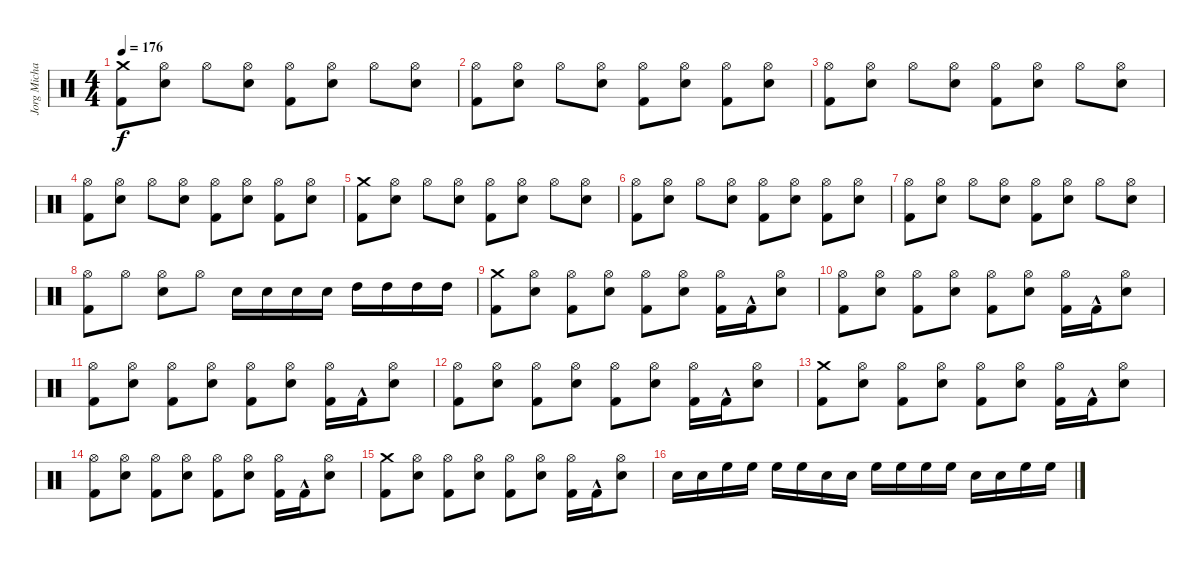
\track ("Jorg Michael" "Jorg Micha") {instrument percussion}
\staff {score}
\articulation defaults
\ts (4 4)
\tempo 176
\clef neutral
\ks c
("Kick (hit) 2" "Crash medium (hit)").8{dy f} ("Snare (hit) 2" "Hi-Hat (open)").8 "Hi-Hat (open)".8 ("Snare (hit) 2" "Hi-Hat (open)").8 ("Kick (hit) 2" "Hi-Hat (open)").8 ("Snare (hit) 2" "Hi-Hat (open)").8 "Hi-Hat (open)".8 ("Snare (hit) 2" "Hi-Hat (open)").8 |
("Hi-Hat (open)" "Kick (hit) 2").8 ("Snare (hit) 2" "Hi-Hat (open)").8 "Hi-Hat (open)".8 ("Snare (hit) 2" "Hi-Hat (open)").8 ("Kick (hit) 2" "Hi-Hat (open)").8 ("Snare (hit) 2" "Hi-Hat (open)").8 ("Kick (hit) 2" "Hi-Hat (open)").8 ("Snare (hit) 2" "Hi-Hat (open)").8 |
("Hi-Hat (open)" "Kick (hit) 2").8 ("Snare (hit) 2" "Hi-Hat (open)").8 "Hi-Hat (open)".8 ("Snare (hit) 2" "Hi-Hat (open)").8 ("Kick (hit) 2" "Hi-Hat (open)").8 ("Snare (hit) 2" "Hi-Hat (open)").8 "Hi-Hat (open)".8 ("Snare (hit) 2" "Hi-Hat (open)").8 |
("Hi-Hat (open)" "Kick (hit) 2").8 ("Snare (hit) 2" "Hi-Hat (open)").8 "Hi-Hat (open)".8 ("Snare (hit) 2" "Hi-Hat (open)").8 ("Kick (hit) 2" "Hi-Hat (open)").8 ("Snare (hit) 2" "Hi-Hat (open)").8 ("Kick (hit) 2" "Hi-Hat (open)").8 ("Snare (hit) 2" "Hi-Hat (open)").8 |
("Kick (hit) 2" "Crash medium (hit)").8 ("Snare (hit) 2" "Hi-Hat (open)").8 "Hi-Hat (open)".8 ("Snare (hit) 2" "Hi-Hat (open)").8 ("Kick (hit) 2" "Hi-Hat (open)").8 ("Snare (hit) 2" "Hi-Hat (open)").8 "Hi-Hat (open)".8 ("Snare (hit) 2" "Hi-Hat (open)").8 |
("Hi-Hat (open)" "Kick (hit) 2").8 ("Snare (hit) 2" "Hi-Hat (open)").8 "Hi-Hat (open)".8 ("Snare (hit) 2" "Hi-Hat (open)").8 ("Kick (hit) 2" "Hi-Hat (open)").8 ("Snare (hit) 2" "Hi-Hat (open)").8 ("Kick (hit) 2" "Hi-Hat (open)").8 ("Snare (hit) 2" "Hi-Hat (open)").8 |
("Hi-Hat (open)" "Kick (hit) 2").8 ("Snare (hit) 2" "Hi-Hat (open)").8 "Hi-Hat (open)".8 ("Snare (hit) 2" "Hi-Hat (open)").8 ("Kick (hit) 2" "Hi-Hat (open)").8 ("Snare (hit) 2" "Hi-Hat (open)").8 "Hi-Hat (open)".8 ("Snare (hit) 2" "Hi-Hat (open)").8 |
("Kick (hit) 2" "Hi-Hat (open)").8 "Hi-Hat (open)".8 ("Snare (hit) 2" "Hi-Hat (open)").8 "Hi-Hat (open)".8 "Snare (hit) 2".16 "Snare (hit) 2".16 "Snare (hit) 2".16 "Snare (hit) 2".16 "High Tom (hit)".16 "High Tom (hit)".16 "High Tom (hit)".16 "High Tom (hit)".16 |
("Kick (hit) 2" "Crash medium (hit)").8 ("Snare (hit) 2" "Hi-Hat (open)").8 ("Kick (hit) 2" "Hi-Hat (open)").8 ("Snare (hit) 2" "Hi-Hat (open)").8 ("Kick (hit) 2" "Hi-Hat (open)").8 ("Snare (hit) 2" "Hi-Hat (open)").8 ("Kick (hit) 2" "Hi-Hat (open)").16 "Kick (hit) 2"{hac}.16 ("Snare (hit) 2" "Hi-Hat (open)").8 |
("Hi-Hat (open)" "Kick (hit) 2").8 ("Snare (hit) 2" "Hi-Hat (open)").8 ("Kick (hit) 2" "Hi-Hat (open)").8 ("Snare (hit) 2" "Hi-Hat (open)").8 ("Kick (hit) 2" "Hi-Hat (open)").8 ("Snare (hit) 2" "Hi-Hat (open)").8 ("Kick (hit) 2" "Hi-Hat (open)").16 "Kick (hit) 2"{hac}.16 ("Snare (hit) 2" "Hi-Hat (open)").8 |
("Hi-Hat (open)" "Kick (hit) 2").8 ("Snare (hit) 2" "Hi-Hat (open)").8 ("Kick (hit) 2" "Hi-Hat (open)").8 ("Snare (hit) 2" "Hi-Hat (open)").8 ("Kick (hit) 2" "Hi-Hat (open)").8 ("Snare (hit) 2" "Hi-Hat (open)").8 ("Kick (hit) 2" "Hi-Hat (open)").16 "Kick (hit) 2"{hac}.16 ("Snare (hit) 2" "Hi-Hat (open)").8 |
("Hi-Hat (open)" "Kick (hit) 2").8 ("Snare (hit) 2" "Hi-Hat (open)").8 ("Kick (hit) 2" "Hi-Hat (open)").8 ("Snare (hit) 2" "Hi-Hat (open)").8 ("Kick (hit) 2" "Hi-Hat (open)").8 ("Snare (hit) 2" "Hi-Hat (open)").8 ("Kick (hit) 2" "Hi-Hat (open)").16 "Kick (hit) 2"{hac}.16 ("Snare (hit) 2" "Hi-Hat (open)").8 |
("Kick (hit) 2" "Crash medium (hit)").8 ("Snare (hit) 2" "Hi-Hat (open)").8 ("Kick (hit) 2" "Hi-Hat (open)").8 ("Snare (hit) 2" "Hi-Hat (open)").8 ("Kick (hit) 2" "Hi-Hat (open)").8 ("Snare (hit) 2" "Hi-Hat (open)").8 ("Kick (hit) 2" "Hi-Hat (open)").16 "Kick (hit) 2"{hac}.16 ("Snare (hit) 2" "Hi-Hat (open)").8 |
("Hi-Hat (open)" "Kick (hit) 2").8 ("Snare (hit) 2" "Hi-Hat (open)").8 ("Kick (hit) 2" "Hi-Hat (open)").8 ("Snare (hit) 2" "Hi-Hat (open)").8 ("Kick (hit) 2" "Hi-Hat (open)").8 ("Snare (hit) 2" "Hi-Hat (open)").8 ("Kick (hit) 2" "Hi-Hat (open)").16 "Kick (hit) 2"{hac}.16 ("Snare (hit) 2" "Hi-Hat (open)").8 |
("Kick (hit) 2" "Crash medium (hit)").8 ("Snare (hit) 2" "Hi-Hat (open)").8 ("Kick (hit) 2" "Hi-Hat (open)").8 ("Snare (hit) 2" "Hi-Hat (open)").8 ("Kick (hit) 2" "Hi-Hat (open)").8 ("Snare (hit) 2" "Hi-Hat (open)").8 ("Kick (hit) 2" "Hi-Hat (open)").16 "Kick (hit) 2"{hac}.16 ("Snare (hit) 2" "Hi-Hat (open)").8 |
"Snare (hit) 2".16 "Snare (hit) 2".16 "High Floor Tom (hit)".16 "High Floor Tom (hit)".16 "High Floor Tom (hit)".16 "High Floor Tom (hit)".16 "Snare (hit) 2".16 "Snare (hit) 2".16 "High Floor Tom (hit)".16 "High Floor Tom (hit)".16 "High Floor Tom (hit)".16 "High Floor Tom (hit)".16 "Snare (hit) 2".16 "Snare (hit) 2".16 "High Floor Tom (hit)".16 "High Floor Tom (hit)".16
